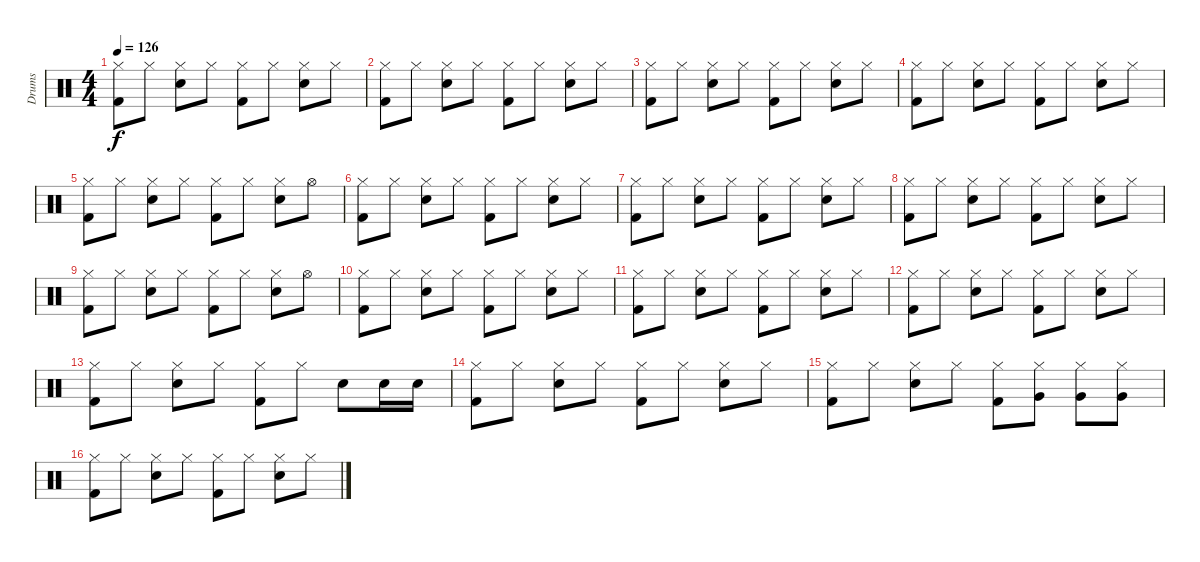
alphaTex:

\track ("Drums" "Drums") {instrument percussion}
\staff {score}
\articulation defaults
\ts (4 4)
\tempo 126
\clef neutral
\ks c
("Kick (hit) 2" "Hi-Hat (closed)").8{dy f} "Hi-Hat (closed)".8 ("Snare (hit) 2" "Hi-Hat (closed)").8 "Hi-Hat (closed)".8 ("Kick (hit) 2" "Hi-Hat (closed)").8 "Hi-Hat (closed)".8 ("Snare (hit) 2" "Hi-Hat (closed)").8 "Hi-Hat (closed)".8 |
("Kick (hit) 2" "Hi-Hat (closed)").8 "Hi-Hat (closed)".8 ("Snare (hit) 2" "Hi-Hat (closed)").8 "Hi-Hat (closed)".8 ("Kick (hit) 2" "Hi-Hat (closed)").8 "Hi-Hat (closed)".8 ("Snare (hit) 2" "Hi-Hat (closed)").8 "Hi-Hat (closed)".8 |
("Kick (hit) 2" "Hi-Hat (closed)").8 "Hi-Hat (closed)".8 ("Snare (hit) 2" "Hi-Hat (closed)").8 "Hi-Hat (closed)".8 ("Kick (hit) 2" "Hi-Hat (closed)").8 "Hi-Hat (closed)".8 ("Snare (hit) 2" "Hi-Hat (closed)").8 "Hi-Hat (closed)".8 |
("Kick (hit) 2" "Hi-Hat (closed)").8 "Hi-Hat (closed)".8 ("Snare (hit) 2" "Hi-Hat (closed)").8 "Hi-Hat (closed)".8 ("Kick (hit) 2" "Hi-Hat (closed)").8 "Hi-Hat (closed)".8 ("Snare (hit) 2" "Hi-Hat (closed)").8 "Hi-Hat (closed)".8 |
("Kick (hit) 2" "Hi-Hat (closed)").8 "Hi-Hat (closed)".8 ("Snare (hit) 2" "Hi-Hat (closed)").8 "Hi-Hat (closed)".8 ("Kick (hit) 2" "Hi-Hat (closed)").8 "Hi-Hat (closed)".8 ("Snare (hit) 2" "Hi-Hat (closed)").8 "Hi-Hat (open)".8 |
("Kick (hit) 2" "Hi-Hat (closed)").8 "Hi-Hat (closed)".8 ("Snare (hit) 2" "Hi-Hat (closed)").8 "Hi-Hat (closed)".8 ("Kick (hit) 2" "Hi-Hat (closed)").8 "Hi-Hat (closed)".8 ("Snare (hit) 2" "Hi-Hat (closed)").8 "Hi-Hat (closed)".8 |
("Kick (hit) 2" "Hi-Hat (closed)").8 "Hi-Hat (closed)".8 ("Snare (hit) 2" "Hi-Hat (closed)").8 "Hi-Hat (closed)".8 ("Kick (hit) 2" "Hi-Hat (closed)").8 "Hi-Hat (closed)".8 ("Snare (hit) 2" "Hi-Hat (closed)").8 "Hi-Hat (closed)".8 |
("Kick (hit) 2" "Hi-Hat (closed)").8 "Hi-Hat (closed)".8 ("Snare (hit) 2" "Hi-Hat (closed)").8 "Hi-Hat (closed)".8 ("Kick (hit) 2" "Hi-Hat (closed)").8 "Hi-Hat (closed)".8 ("Snare (hit) 2" "Hi-Hat (closed)").8 "Hi-Hat (closed)".8 |
("Kick (hit) 2" "Hi-Hat (closed)").8 "Hi-Hat (closed)".8 ("Snare (hit) 2" "Hi-Hat (closed)").8 "Hi-Hat (closed)".8 ("Kick (hit) 2" "Hi-Hat (closed)").8 "Hi-Hat (closed)".8 ("Snare (hit) 2" "Hi-Hat (closed)").8 "Hi-Hat (open)".8 |
("Kick (hit) 2" "Hi-Hat (closed)").8 "Hi-Hat (closed)".8 ("Snare (hit) 2" "Hi-Hat (closed)").8 "Hi-Hat (closed)".8 ("Kick (hit) 2" "Hi-Hat (closed)").8 "Hi-Hat (closed)".8 ("Snare (hit) 2" "Hi-Hat (closed)").8 "Hi-Hat (closed)".8 |
("Kick (hit) 2" "Hi-Hat (closed)").8 "Hi-Hat (closed)".8 ("Snare (hit) 2" "Hi-Hat (closed)").8 "Hi-Hat (closed)".8 ("Kick (hit) 2" "Hi-Hat (closed)").8 "Hi-Hat (closed)".8 ("Snare (hit) 2" "Hi-Hat (closed)").8 "Hi-Hat (closed)".8 |
("Kick (hit) 2" "Hi-Hat (closed)").8 "Hi-Hat (closed)".8 ("Snare (hit) 2" "Hi-Hat (closed)").8 "Hi-Hat (closed)".8 ("Kick (hit) 2" "Hi-Hat (closed)").8 "Hi-Hat (closed)".8 ("Snare (hit) 2" "Hi-Hat (closed)").8 "Hi-Hat (closed)".8 |
("Kick (hit) 2" "Hi-Hat (closed)").8 "Hi-Hat (closed)".8 ("Snare (hit) 2" "Hi-Hat (closed)").8 "Hi-Hat (closed)".8 ("Kick (hit) 2" "Hi-Hat (closed)").8 "Hi-Hat (closed)".8 "Snare (hit) 2".8 "Snare (hit) 2".16 "Snare (hit) 2".16 |
("Kick (hit) 2" "Hi-Hat (closed)").8 "Hi-Hat (closed)".8 ("Snare (hit) 2" "Hi-Hat (closed)").8 "Hi-Hat (closed)".8 ("Kick (hit) 2" "Hi-Hat (closed)").8 "Hi-Hat (closed)".8 ("Snare (hit) 2" "Hi-Hat (closed)").8 "Hi-Hat (closed)".8 |
("Kick (hit) 2" "Hi-Hat (closed)").8 "Hi-Hat (closed)".8 ("Snare (hit) 2" "Hi-Hat (closed)").8 "Hi-Hat (closed)".8 ("Kick (hit) 2" "Hi-Hat (closed)").8 ("Very Low Tom (hit)" "Hi-Hat (closed)").8 ("Very Low Tom (hit)" "Hi-Hat (closed)").8 ("Very Low Tom (hit)" "Hi-Hat (closed)").8 |
("Kick (hit) 2" "Hi-Hat (closed)").8 "Hi-Hat (closed)".8 ("Snare (hit) 2" "Hi-Hat (closed)").8 "Hi-Hat (closed)".8 ("Kick (hit) 2" "Hi-Hat (closed)").8 "Hi-Hat (closed)".8 ("Snare (hit) 2" "Hi-Hat (closed)").8 "Hi-Hat (closed)".8
